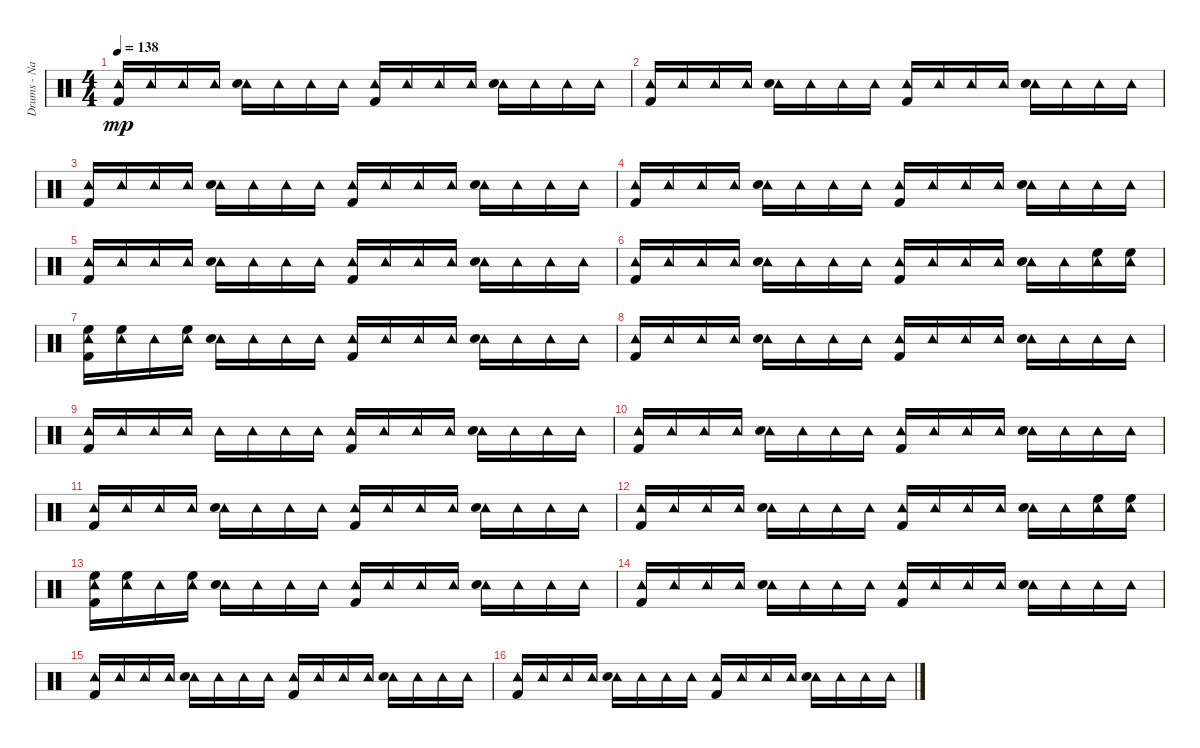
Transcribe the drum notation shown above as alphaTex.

\track ("Drums - Nathan" "Drums - Na") {instrument percussion}
\staff {score}
\articulation defaults
\ts (4 4)
\tempo 138
\clef neutral
\ks c
("Tambourine (hit)" "Kick (hit) 2").16{dy mp} "Tambourine (hit)".16 "Tambourine (hit)".16 "Tambourine (hit)".16 ("Tambourine (hit)" "Electric Snare (hit)").16 "Tambourine (hit)".16 "Tambourine (hit)".16 "Tambourine (hit)".16 ("Tambourine (hit)" "Kick (hit) 2").16 "Tambourine (hit)".16 "Tambourine (hit)".16 "Tambourine (hit)".16 ("Tambourine (hit)" "Electric Snare (hit)").16 "Tambourine (hit)".16 "Tambourine (hit)".16 "Tambourine (hit)".16 |
("Tambourine (hit)" "Kick (hit) 2").16 "Tambourine (hit)".16 "Tambourine (hit)".16 "Tambourine (hit)".16 ("Tambourine (hit)" "Electric Snare (hit)").16 "Tambourine (hit)".16 "Tambourine (hit)".16 "Tambourine (hit)".16 ("Tambourine (hit)" "Kick (hit) 2").16 "Tambourine (hit)".16 "Tambourine (hit)".16 "Tambourine (hit)".16 ("Tambourine (hit)" "Electric Snare (hit)").16 "Tambourine (hit)".16 "Tambourine (hit)".16 "Tambourine (hit)".16 |
("Tambourine (hit)" "Kick (hit) 2").16 "Tambourine (hit)".16 "Tambourine (hit)".16 "Tambourine (hit)".16 ("Tambourine (hit)" "Electric Snare (hit)").16 "Tambourine (hit)".16 "Tambourine (hit)".16 "Tambourine (hit)".16 ("Tambourine (hit)" "Kick (hit) 2").16 "Tambourine (hit)".16 "Tambourine (hit)".16 "Tambourine (hit)".16 ("Tambourine (hit)" "Electric Snare (hit)").16 "Tambourine (hit)".16 "Tambourine (hit)".16 "Tambourine (hit)".16 |
("Tambourine (hit)" "Kick (hit) 2").16 "Tambourine (hit)".16 "Tambourine (hit)".16 "Tambourine (hit)".16 ("Tambourine (hit)" "Electric Snare (hit)").16 "Tambourine (hit)".16 "Tambourine (hit)".16 "Tambourine (hit)".16 ("Tambourine (hit)" "Kick (hit) 2").16 "Tambourine (hit)".16 "Tambourine (hit)".16 "Tambourine (hit)".16 ("Tambourine (hit)" "Electric Snare (hit)").16 "Tambourine (hit)".16 "Tambourine (hit)".16 "Tambourine (hit)".16 |
("Tambourine (hit)" "Kick (hit) 2").16 "Tambourine (hit)".16 "Tambourine (hit)".16 "Tambourine (hit)".16 ("Tambourine (hit)" "Electric Snare (hit)").16 "Tambourine (hit)".16 "Tambourine (hit)".16 "Tambourine (hit)".16 ("Tambourine (hit)" "Kick (hit) 2").16 "Tambourine (hit)".16 "Tambourine (hit)".16 "Tambourine (hit)".16 ("Tambourine (hit)" "Electric Snare (hit)").16 "Tambourine (hit)".16 "Tambourine (hit)".16 "Tambourine (hit)".16 |
("Tambourine (hit)" "Kick (hit) 2").16 "Tambourine (hit)".16 "Tambourine (hit)".16 "Tambourine (hit)".16 ("Tambourine (hit)" "Electric Snare (hit)").16 "Tambourine (hit)".16 "Tambourine (hit)".16 "Tambourine (hit)".16 ("Tambourine (hit)" "Kick (hit) 2").16 "Tambourine (hit)".16 "Tambourine (hit)".16 "Tambourine (hit)".16 ("Tambourine (hit)" "Electric Snare (hit)").16 "Tambourine (hit)".16 ("Tambourine (hit)" "High Floor Tom (hit)").16 ("Tambourine (hit)" "High Floor Tom (hit)").16 |
("Tambourine (hit)" "High Floor Tom (hit)" "Kick (hit) 2").16 ("Tambourine (hit)" "High Floor Tom (hit)").16 "Tambourine (hit)".16 ("Tambourine (hit)" "High Floor Tom (hit)").16 ("Tambourine (hit)" "Electric Snare (hit)").16 "Tambourine (hit)".16 "Tambourine (hit)".16 "Tambourine (hit)".16 ("Tambourine (hit)" "Kick (hit) 2").16 "Tambourine (hit)".16 "Tambourine (hit)".16 "Tambourine (hit)".16 ("Tambourine (hit)" "Electric Snare (hit)").16 "Tambourine (hit)".16 "Tambourine (hit)".16 "Tambourine (hit)".16 |
("Tambourine (hit)" "Kick (hit) 2").16 "Tambourine (hit)".16 "Tambourine (hit)".16 "Tambourine (hit)".16 ("Tambourine (hit)" "Electric Snare (hit)").16 "Tambourine (hit)".16 "Tambourine (hit)".16 "Tambourine (hit)".16 ("Tambourine (hit)" "Kick (hit) 2").16 "Tambourine (hit)".16 "Tambourine (hit)".16 "Tambourine (hit)".16 ("Tambourine (hit)" "Electric Snare (hit)").16 "Tambourine (hit)".16 "Tambourine (hit)".16 "Tambourine (hit)".16 |
("Tambourine (hit)" "Kick (hit) 2").16 "Tambourine (hit)".16 "Tambourine (hit)".16 "Tambourine (hit)".16 "Tambourine (hit)".16 "Tambourine (hit)".16 "Tambourine (hit)".16 "Tambourine (hit)".16 ("Tambourine (hit)" "Kick (hit) 2").16 "Tambourine (hit)".16 "Tambourine (hit)".16 "Tambourine (hit)".16 ("Tambourine (hit)" "Electric Snare (hit)").16 "Tambourine (hit)".16 "Tambourine (hit)".16 "Tambourine (hit)".16 |
("Tambourine (hit)" "Kick (hit) 2").16 "Tambourine (hit)".16 "Tambourine (hit)".16 "Tambourine (hit)".16 ("Tambourine (hit)" "Electric Snare (hit)").16 "Tambourine (hit)".16 "Tambourine (hit)".16 "Tambourine (hit)".16 ("Tambourine (hit)" "Kick (hit) 2").16 "Tambourine (hit)".16 "Tambourine (hit)".16 "Tambourine (hit)".16 ("Tambourine (hit)" "Electric Snare (hit)").16 "Tambourine (hit)".16 "Tambourine (hit)".16 "Tambourine (hit)".16 |
("Tambourine (hit)" "Kick (hit) 2").16 "Tambourine (hit)".16 "Tambourine (hit)".16 "Tambourine (hit)".16 ("Tambourine (hit)" "Electric Snare (hit)").16 "Tambourine (hit)".16 "Tambourine (hit)".16 "Tambourine (hit)".16 ("Tambourine (hit)" "Kick (hit) 2").16 "Tambourine (hit)".16 "Tambourine (hit)".16 "Tambourine (hit)".16 ("Tambourine (hit)" "Electric Snare (hit)").16 "Tambourine (hit)".16 "Tambourine (hit)".16 "Tambourine (hit)".16 |
("Tambourine (hit)" "Kick (hit) 2").16 "Tambourine (hit)".16 "Tambourine (hit)".16 "Tambourine (hit)".16 ("Tambourine (hit)" "Electric Snare (hit)").16 "Tambourine (hit)".16 "Tambourine (hit)".16 "Tambourine (hit)".16 ("Tambourine (hit)" "Kick (hit) 2").16 "Tambourine (hit)".16 "Tambourine (hit)".16 "Tambourine (hit)".16 ("Tambourine (hit)" "Electric Snare (hit)").16 "Tambourine (hit)".16 ("Tambourine (hit)" "High Floor Tom (hit)").16 ("Tambourine (hit)" "High Floor Tom (hit)").16 |
("Tambourine (hit)" "High Floor Tom (hit)" "Kick (hit) 2").16 ("Tambourine (hit)" "High Floor Tom (hit)").16 "Tambourine (hit)".16 ("Tambourine (hit)" "High Floor Tom (hit)").16 ("Tambourine (hit)" "Electric Snare (hit)").16 "Tambourine (hit)".16 "Tambourine (hit)".16 "Tambourine (hit)".16 ("Tambourine (hit)" "Kick (hit) 2").16 "Tambourine (hit)".16 "Tambourine (hit)".16 "Tambourine (hit)".16 ("Tambourine (hit)" "Electric Snare (hit)").16 "Tambourine (hit)".16 "Tambourine (hit)".16 "Tambourine (hit)".16 |
("Tambourine (hit)" "Kick (hit) 2").16 "Tambourine (hit)".16 "Tambourine (hit)".16 "Tambourine (hit)".16 ("Tambourine (hit)" "Electric Snare (hit)").16 "Tambourine (hit)".16 "Tambourine (hit)".16 "Tambourine (hit)".16 ("Tambourine (hit)" "Kick (hit) 2").16 "Tambourine (hit)".16 "Tambourine (hit)".16 "Tambourine (hit)".16 ("Tambourine (hit)" "Electric Snare (hit)").16 "Tambourine (hit)".16 "Tambourine (hit)".16 "Tambourine (hit)".16 |
("Tambourine (hit)" "Kick (hit) 2").16 "Tambourine (hit)".16 "Tambourine (hit)".16 "Tambourine (hit)".16 ("Tambourine (hit)" "Electric Snare (hit)").16 "Tambourine (hit)".16 "Tambourine (hit)".16 "Tambourine (hit)".16 ("Tambourine (hit)" "Kick (hit) 2").16 "Tambourine (hit)".16 "Tambourine (hit)".16 "Tambourine (hit)".16 ("Tambourine (hit)" "Electric Snare (hit)").16 "Tambourine (hit)".16 "Tambourine (hit)".16 "Tambourine (hit)".16 |
("Tambourine (hit)" "Kick (hit) 2").16 "Tambourine (hit)".16 "Tambourine (hit)".16 "Tambourine (hit)".16 ("Tambourine (hit)" "Electric Snare (hit)").16 "Tambourine (hit)".16 "Tambourine (hit)".16 "Tambourine (hit)".16 ("Tambourine (hit)" "Kick (hit) 2").16 "Tambourine (hit)".16 "Tambourine (hit)".16 "Tambourine (hit)".16 ("Tambourine (hit)" "Electric Snare (hit)").16 "Tambourine (hit)".16 "Tambourine (hit)".16 "Tambourine (hit)".16
